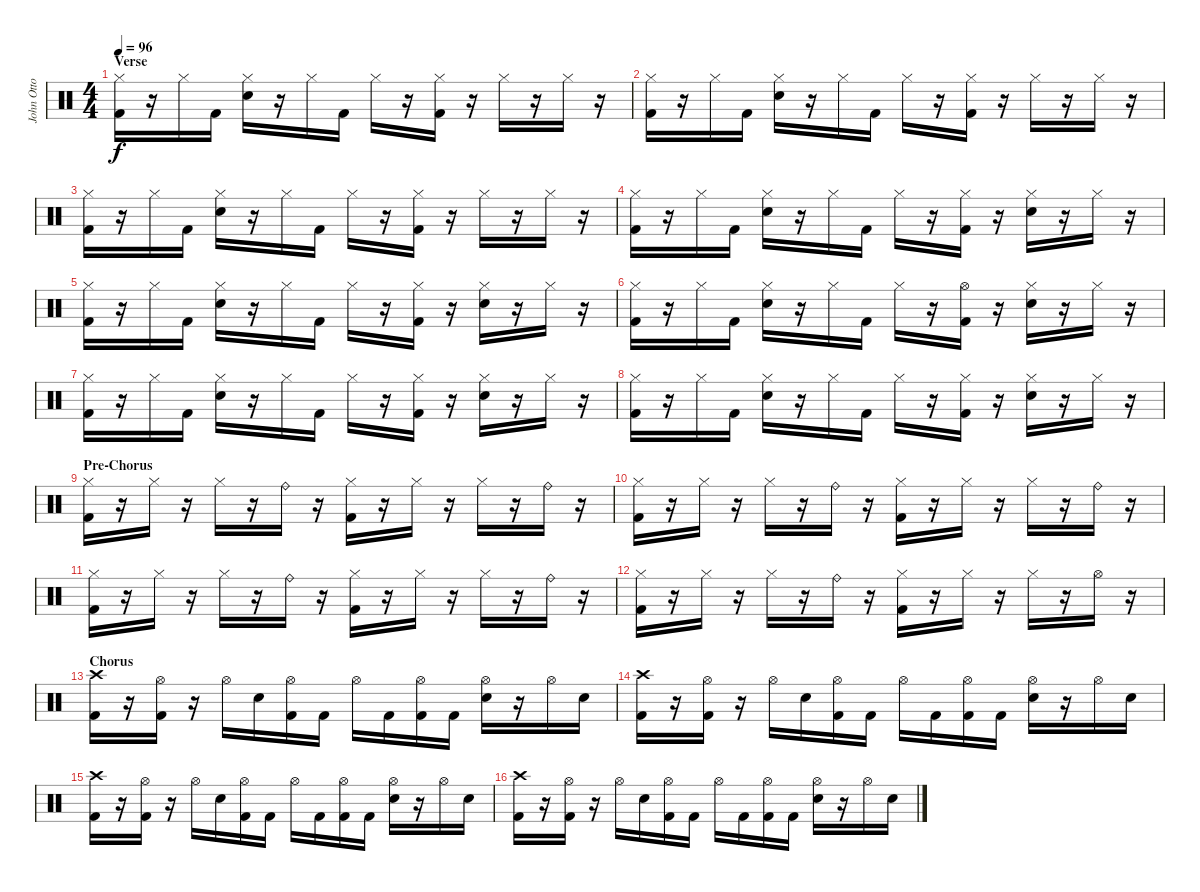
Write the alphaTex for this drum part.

\track ("John Otto" "John Otto") {instrument percussion}
\staff {score}
\articulation defaults
\ts (4 4)
\section ("" "Verse")
\tempo 96
\clef neutral
\ks c
("Hi-Hat (closed)" "Kick (hit) 2").16{dy f} r.16 "Hi-Hat (closed)".16 "Kick (hit) 2".16 ("Hi-Hat (closed)" "Snare (hit) 2").16 r.16 "Hi-Hat (closed)".16 "Kick (hit) 2".16 "Hi-Hat (closed)".16 r.16 ("Hi-Hat (closed)" "Kick (hit) 2").16 r.16 "Hi-Hat (closed)".16 r.16 "Hi-Hat (closed)".16 r.16 |
("Hi-Hat (closed)" "Kick (hit) 2").16 r.16 "Hi-Hat (closed)".16 "Kick (hit) 2".16 ("Hi-Hat (closed)" "Snare (hit) 2").16 r.16 "Hi-Hat (closed)".16 "Kick (hit) 2".16 "Hi-Hat (closed)".16 r.16 ("Hi-Hat (closed)" "Kick (hit) 2").16 r.16 "Hi-Hat (closed)".16 r.16 "Hi-Hat (closed)".16 r.16 |
("Hi-Hat (closed)" "Kick (hit) 2").16 r.16 "Hi-Hat (closed)".16 "Kick (hit) 2".16 ("Hi-Hat (closed)" "Snare (hit) 2").16 r.16 "Hi-Hat (closed)".16 "Kick (hit) 2".16 "Hi-Hat (closed)".16 r.16 ("Hi-Hat (closed)" "Kick (hit) 2").16 r.16 "Hi-Hat (closed)".16 r.16 "Hi-Hat (closed)".16 r.16 |
("Hi-Hat (closed)" "Kick (hit) 2").16 r.16 "Hi-Hat (closed)".16 "Kick (hit) 2".16 ("Hi-Hat (closed)" "Snare (hit) 2").16 r.16 "Hi-Hat (closed)".16 "Kick (hit) 2".16 "Hi-Hat (closed)".16 r.16 ("Hi-Hat (closed)" "Kick (hit) 2").16 r.16 ("Hi-Hat (closed)" "Snare (hit) 2").16 r.16 "Hi-Hat (closed)".16 r.16 |
("Hi-Hat (closed)" "Kick (hit) 2").16 r.16 "Hi-Hat (closed)".16 "Kick (hit) 2".16 ("Hi-Hat (closed)" "Snare (hit) 2").16 r.16 "Hi-Hat (closed)".16 "Kick (hit) 2".16 "Hi-Hat (closed)".16 r.16 ("Hi-Hat (closed)" "Kick (hit) 2").16 r.16 ("Hi-Hat (closed)" "Snare (hit) 2").16 r.16 "Hi-Hat (closed)".16 r.16 |
("Hi-Hat (closed)" "Kick (hit) 2").16 r.16 "Hi-Hat (closed)".16 "Kick (hit) 2".16 ("Hi-Hat (closed)" "Snare (hit) 2").16 r.16 "Hi-Hat (closed)".16 "Kick (hit) 2".16 "Hi-Hat (closed)".16 r.16 ("Hi-Hat (open)" "Kick (hit) 2").16 r.16 ("Hi-Hat (closed)" "Snare (hit) 2").16 r.16 "Hi-Hat (closed)".16 r.16 |
("Hi-Hat (closed)" "Kick (hit) 2").16 r.16 "Hi-Hat (closed)".16 "Kick (hit) 2".16 ("Hi-Hat (closed)" "Snare (hit) 2").16 r.16 "Hi-Hat (closed)".16 "Kick (hit) 2".16 "Hi-Hat (closed)".16 r.16 ("Hi-Hat (closed)" "Kick (hit) 2").16 r.16 ("Hi-Hat (closed)" "Snare (hit) 2").16 r.16 "Hi-Hat (closed)".16 r.16 |
("Hi-Hat (closed)" "Kick (hit) 2").16 r.16 "Hi-Hat (closed)".16 "Kick (hit) 2".16 ("Hi-Hat (closed)" "Snare (hit) 2").16 r.16 "Hi-Hat (closed)".16 "Kick (hit) 2".16 "Hi-Hat (closed)".16 r.16 ("Hi-Hat (closed)" "Kick (hit) 2").16 r.16 ("Hi-Hat (closed)" "Snare (hit) 2").16 r.16 "Hi-Hat (closed)".16 r.16 |
\section ("" "Pre-Chorus")
("Hi-Hat (closed)" "Kick (hit) 2").16 r.16 "Hi-Hat (closed)".16 r.16 "Hi-Hat (closed)".16 r.16 "Ride (bell)".16 r.16 ("Hi-Hat (closed)" "Kick (hit) 2").16 r.16 "Hi-Hat (closed)".16 r.16 "Hi-Hat (closed)".16 r.16 "Ride (bell)".16 r.16 |
("Hi-Hat (closed)" "Kick (hit) 2").16 r.16 "Hi-Hat (closed)".16 r.16 "Hi-Hat (closed)".16 r.16 "Ride (bell)".16 r.16 ("Hi-Hat (closed)" "Kick (hit) 2").16 r.16 "Hi-Hat (closed)".16 r.16 "Hi-Hat (closed)".16 r.16 "Ride (bell)".16 r.16 |
("Hi-Hat (closed)" "Kick (hit) 2").16 r.16 "Hi-Hat (closed)".16 r.16 "Hi-Hat (closed)".16 r.16 "Ride (bell)".16 r.16 ("Hi-Hat (closed)" "Kick (hit) 2").16 r.16 "Hi-Hat (closed)".16 r.16 "Hi-Hat (closed)".16 r.16 "Ride (bell)".16 r.16 |
("Hi-Hat (closed)" "Kick (hit) 2").16 r.16 "Hi-Hat (closed)".16 r.16 "Hi-Hat (closed)".16 r.16 "Ride (bell)".16 r.16 ("Hi-Hat (closed)" "Kick (hit) 2").16 r.16 "Hi-Hat (closed)".16 r.16 "Hi-Hat (closed)".16 r.16 "Hi-Hat (open)".16 r.16 |
\section ("" "Chorus")
("Crash high (hit)" "Kick (hit) 2").16 r.16 ("Hi-Hat (open)" "Kick (hit) 2").16 r.16 "Hi-Hat (open)".16 "Snare (hit) 2".16 ("Hi-Hat (open)" "Kick (hit) 2").16 "Kick (hit) 2".16 "Hi-Hat (open)".16 "Kick (hit) 2".16 ("Hi-Hat (open)" "Kick (hit) 2").16 "Kick (hit) 2".16 ("Hi-Hat (open)" "Snare (hit) 2").16 r.16 "Hi-Hat (open)".16 "Snare (hit) 2".16 |
("Crash high (hit)" "Kick (hit) 2").16 r.16 ("Hi-Hat (open)" "Kick (hit) 2").16 r.16 "Hi-Hat (open)".16 "Snare (hit) 2".16 ("Hi-Hat (open)" "Kick (hit) 2").16 "Kick (hit) 2".16 "Hi-Hat (open)".16 "Kick (hit) 2".16 ("Hi-Hat (open)" "Kick (hit) 2").16 "Kick (hit) 2".16 ("Hi-Hat (open)" "Snare (hit) 2").16 r.16 "Hi-Hat (open)".16 "Snare (hit) 2".16 |
("Crash high (hit)" "Kick (hit) 2").16 r.16 ("Hi-Hat (open)" "Kick (hit) 2").16 r.16 "Hi-Hat (open)".16 "Snare (hit) 2".16 ("Hi-Hat (open)" "Kick (hit) 2").16 "Kick (hit) 2".16 "Hi-Hat (open)".16 "Kick (hit) 2".16 ("Hi-Hat (open)" "Kick (hit) 2").16 "Kick (hit) 2".16 ("Hi-Hat (open)" "Snare (hit) 2").16 r.16 "Hi-Hat (open)".16 "Snare (hit) 2".16 |
("Crash high (hit)" "Kick (hit) 2").16 r.16 ("Hi-Hat (open)" "Kick (hit) 2").16 r.16 "Hi-Hat (open)".16 "Snare (hit) 2".16 ("Hi-Hat (open)" "Kick (hit) 2").16 "Kick (hit) 2".16 "Hi-Hat (open)".16 "Kick (hit) 2".16 ("Hi-Hat (open)" "Kick (hit) 2").16 "Kick (hit) 2".16 ("Hi-Hat (open)" "Snare (hit) 2").16 r.16 "Hi-Hat (open)".16 "Snare (hit) 2".16
